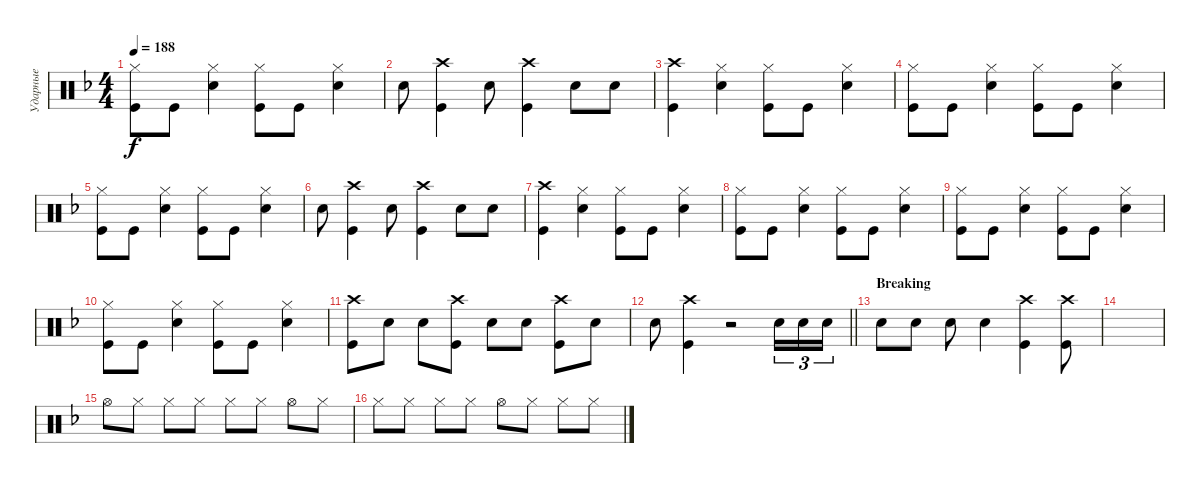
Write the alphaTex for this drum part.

\track ("Ударные" "Ударные") {instrument percussion}
\staff {score}
\articulation defaults
\ts (4 4)
\tempo 188
\clef neutral
\ks dminor
("Kick (hit)" "Hi-Hat (closed)").8{dy f} "Kick (hit)".8 ("Snare (hit) 2" "Hi-Hat (closed)").4 ("Kick (hit)" "Hi-Hat (closed)").8 "Kick (hit)".8 ("Hi-Hat (closed)" "Snare (hit) 2").4 |
"Snare (hit) 2".8 ("Kick (hit)" "Crash high (hit)").4 "Snare (hit) 2".8 ("Kick (hit)" "Crash high (hit)").4 "Snare (hit) 2".8 "Snare (hit) 2".8 |
("Kick (hit)" "Crash high (hit)").4 ("Snare (hit) 2" "Hi-Hat (closed)").4 ("Kick (hit)" "Hi-Hat (closed)").8 "Kick (hit)".8 ("Hi-Hat (closed)" "Snare (hit) 2").4 |
("Kick (hit)" "Hi-Hat (closed)").8 "Kick (hit)".8 ("Snare (hit) 2" "Hi-Hat (closed)").4 ("Kick (hit)" "Hi-Hat (closed)").8 "Kick (hit)".8 ("Hi-Hat (closed)" "Snare (hit) 2").4 |
("Kick (hit)" "Hi-Hat (closed)").8 "Kick (hit)".8 ("Snare (hit) 2" "Hi-Hat (closed)").4 ("Kick (hit)" "Hi-Hat (closed)").8 "Kick (hit)".8 ("Hi-Hat (closed)" "Snare (hit) 2").4 |
"Snare (hit) 2".8 ("Kick (hit)" "Crash high (hit)").4 "Snare (hit) 2".8 ("Kick (hit)" "Crash high (hit)").4 "Snare (hit) 2".8 "Snare (hit) 2".8 |
("Kick (hit)" "Crash high (hit)").4 ("Snare (hit) 2" "Hi-Hat (closed)").4 ("Kick (hit)" "Hi-Hat (closed)").8 "Kick (hit)".8 ("Hi-Hat (closed)" "Snare (hit) 2").4 |
("Kick (hit)" "Hi-Hat (closed)").8 "Kick (hit)".8 ("Snare (hit) 2" "Hi-Hat (closed)").4 ("Kick (hit)" "Hi-Hat (closed)").8 "Kick (hit)".8 ("Hi-Hat (closed)" "Snare (hit) 2").4 |
("Kick (hit)" "Hi-Hat (closed)").8 "Kick (hit)".8 ("Snare (hit) 2" "Hi-Hat (closed)").4 ("Kick (hit)" "Hi-Hat (closed)").8 "Kick (hit)".8 ("Hi-Hat (closed)" "Snare (hit) 2").4 |
("Kick (hit)" "Hi-Hat (closed)").8 "Kick (hit)".8 ("Snare (hit) 2" "Hi-Hat (closed)").4 ("Kick (hit)" "Hi-Hat (closed)").8 "Kick (hit)".8 ("Hi-Hat (closed)" "Snare (hit) 2").4 |
("Kick (hit)" "Crash high (hit)").8 "Snare (hit) 2".8 "Snare (hit) 2".8 ("Kick (hit)" "Crash high (hit)").8 "Snare (hit) 2".8 "Snare (hit) 2".8 ("Kick (hit)" "Crash high (hit)").8 "Snare (hit) 2".8 |
\barLineRight lightlight "Snare (hit) 2".8
("Kick (hit)" "Crash high (hit)").4 r.2 "Snare (hit) 2".16{tu (3 2)} "Snare (hit) 2".16{tu (3 2)} "Snare (hit) 2".16{tu (3 2)} |
\section ("" "Breaking")
"Snare (hit) 2".8 "Snare (hit) 2".8 "Snare (hit) 2".8 "Snare (hit) 2".4 ("Kick (hit)" "Crash high (hit)").4 ("Kick (hit)" "Crash high (hit)").8 |
|
"Hi-Hat (open)".8 "Hi-Hat (closed)".8 "Hi-Hat (closed)".8 "Hi-Hat (closed)".8 "Hi-Hat (closed)".8 "Hi-Hat (closed)".8 "Hi-Hat (open)".8 "Hi-Hat (closed)".8 |
"Hi-Hat (closed)".8 "Hi-Hat (closed)".8 "Hi-Hat (closed)".8 "Hi-Hat (closed)".8 "Hi-Hat (open)".8 "Hi-Hat (closed)".8 "Hi-Hat (closed)".8 "Hi-Hat (closed)".8
